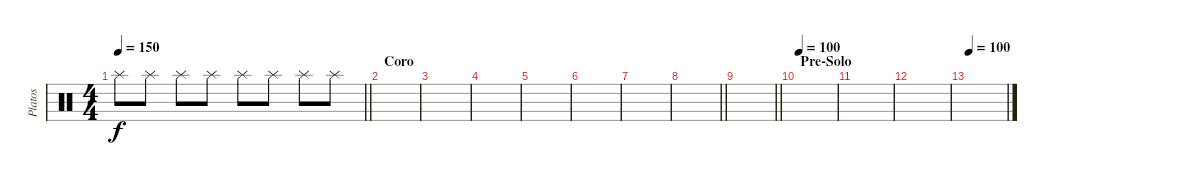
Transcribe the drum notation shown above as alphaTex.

\track ("Platos" "Platos") {instrument percussion}
\staff {score}
\articulation defaults
\ts (4 4)
\tempo 150
\clef neutral
\barLineRight lightlight
\ks c "Splash (hit)".8{dy f} "Splash (hit)".8 "Splash (hit)".8 "Splash (hit)".8 "Splash (hit)".8 "Splash (hit)".8 "Splash (hit)".8 "Splash (hit)".8
|
\section ("" "Coro")
|
|
|
|
|
|
\barLineRight lightlight
|
\barLineRight lightlight
|
\section ("" "Pre-Solo")
\tempo 100
|
|
|
\tempo 100
